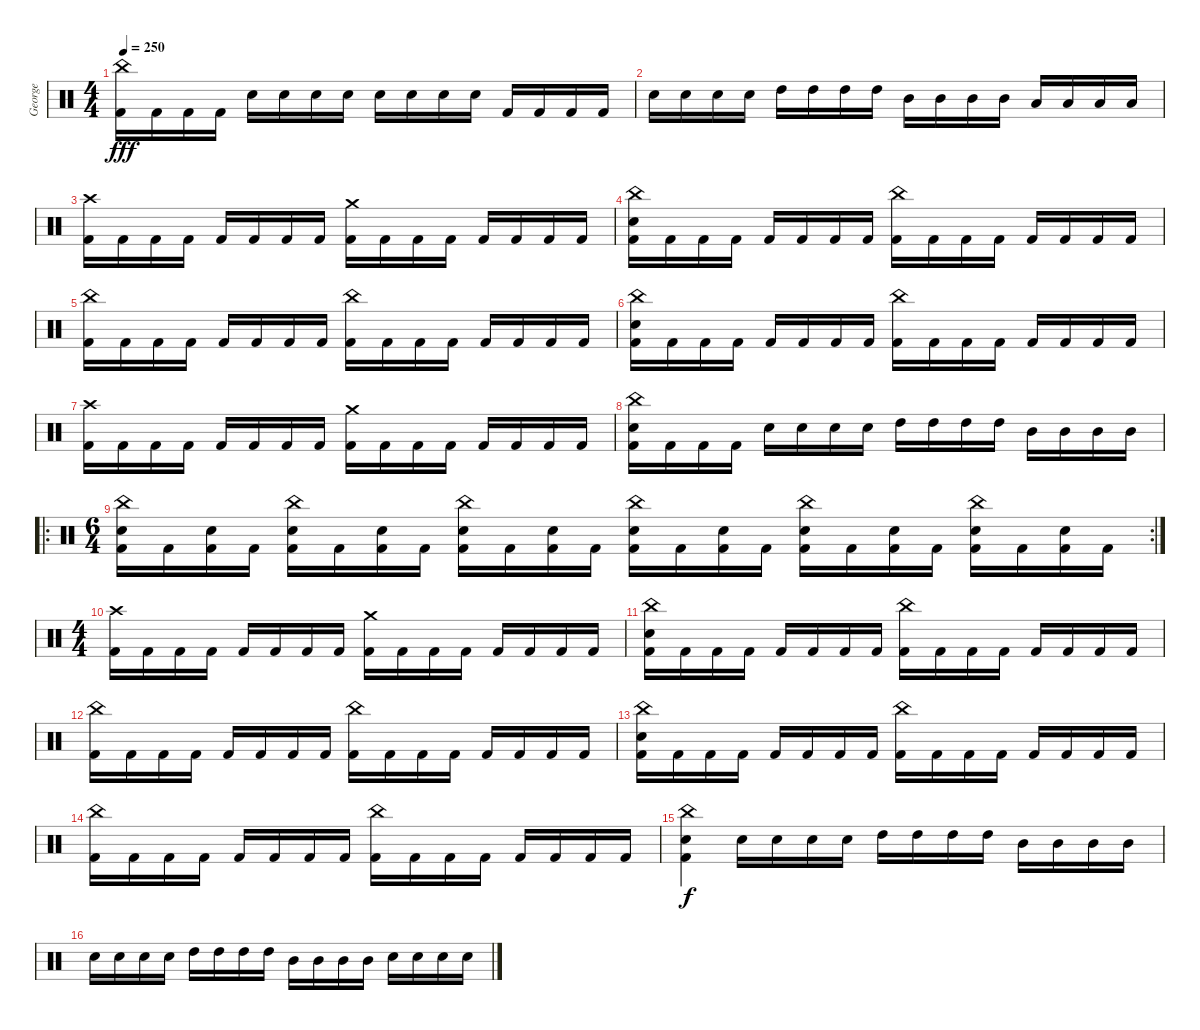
\track ("George" "George") {instrument percussion}
\staff {score}
\articulation defaults
\ts (4 4)
\tempo 250
\clef neutral
\ks c
("China (hit)" "Kick (hit) 2").16{dy fff} "Kick (hit) 2".16 "Kick (hit) 2".16 "Kick (hit) 2".16 "Snare (hit) 2".16 "Snare (hit) 2".16 "Snare (hit) 2".16 "Snare (hit) 2".16 "Snare (hit) 2".16 "Snare (hit) 2".16 "Snare (hit) 2".16 "Snare (hit) 2".16 "Kick (hit) 2".16 "Kick (hit) 2".16 "Kick (hit) 2".16 "Kick (hit) 2".16 |
"Snare (hit) 2".16 "Snare (hit) 2".16 "Snare (hit) 2".16 "Snare (hit) 2".16 "High Tom (hit)".16 "High Tom (hit)".16 "High Tom (hit)".16 "High Tom (hit)".16 "Mid Tom (hit)".16 "Mid Tom (hit)".16 "Mid Tom (hit)".16 "Mid Tom (hit)".16 "Low Tom (hit)".16 "Low Tom (hit)".16 "Low Tom (hit)".16 "Low Tom (hit)".16 |
("Crash high (hit)" "Kick (hit) 2").16 "Kick (hit) 2".16 "Kick (hit) 2".16 "Kick (hit) 2".16 "Kick (hit) 2".16 "Kick (hit) 2".16 "Kick (hit) 2".16 "Kick (hit) 2".16 ("Crash medium (hit)" "Kick (hit) 2").16 "Kick (hit) 2".16 "Kick (hit) 2".16 "Kick (hit) 2".16 "Kick (hit) 2".16 "Kick (hit) 2".16 "Kick (hit) 2".16 "Kick (hit) 2".16 |
("China (hit)" "Snare (hit) 2" "Kick (hit) 2").16 "Kick (hit) 2".16 "Kick (hit) 2".16 "Kick (hit) 2".16 "Kick (hit) 2".16 "Kick (hit) 2".16 "Kick (hit) 2".16 "Kick (hit) 2".16 ("China (hit)" "Kick (hit) 2").16 "Kick (hit) 2".16 "Kick (hit) 2".16 "Kick (hit) 2".16 "Kick (hit) 2".16 "Kick (hit) 2".16 "Kick (hit) 2".16 "Kick (hit) 2".16 |
("China (hit)" "Kick (hit) 2").16 "Kick (hit) 2".16 "Kick (hit) 2".16 "Kick (hit) 2".16 "Kick (hit) 2".16 "Kick (hit) 2".16 "Kick (hit) 2".16 "Kick (hit) 2".16 ("China (hit)" "Kick (hit) 2").16 "Kick (hit) 2".16 "Kick (hit) 2".16 "Kick (hit) 2".16 "Kick (hit) 2".16 "Kick (hit) 2".16 "Kick (hit) 2".16 "Kick (hit) 2".16 |
("China (hit)" "Snare (hit) 2" "Kick (hit) 2").16 "Kick (hit) 2".16 "Kick (hit) 2".16 "Kick (hit) 2".16 "Kick (hit) 2".16 "Kick (hit) 2".16 "Kick (hit) 2".16 "Kick (hit) 2".16 ("China (hit)" "Kick (hit) 2").16 "Kick (hit) 2".16 "Kick (hit) 2".16 "Kick (hit) 2".16 "Kick (hit) 2".16 "Kick (hit) 2".16 "Kick (hit) 2".16 "Kick (hit) 2".16 |
("Crash high (hit)" "Kick (hit) 2").16 "Kick (hit) 2".16 "Kick (hit) 2".16 "Kick (hit) 2".16 "Kick (hit) 2".16 "Kick (hit) 2".16 "Kick (hit) 2".16 "Kick (hit) 2".16 ("Crash medium (hit)" "Kick (hit) 2").16 "Kick (hit) 2".16 "Kick (hit) 2".16 "Kick (hit) 2".16 "Kick (hit) 2".16 "Kick (hit) 2".16 "Kick (hit) 2".16 "Kick (hit) 2".16 |
("China (hit)" "Snare (hit) 2" "Kick (hit) 2").16 "Kick (hit) 2".16 "Kick (hit) 2".16 "Kick (hit) 2".16 "Snare (hit) 2".16 "Snare (hit) 2".16 "Snare (hit) 2".16 "Snare (hit) 2".16 "High Tom (hit)".16 "High Tom (hit)".16 "High Tom (hit)".16 "High Tom (hit)".16 "Mid Tom (hit)".16 "Mid Tom (hit)".16 "Mid Tom (hit)".16 "Mid Tom (hit)".16 |
\ro
\rc 2
\ts (6 4)
("China (hit)" "Snare (hit) 2" "Kick (hit) 2").16 "Kick (hit) 2".16 ("Snare (hit) 2" "Kick (hit) 2").16 "Kick (hit) 2".16 ("China (hit)" "Snare (hit) 2" "Kick (hit) 2").16 "Kick (hit) 2".16 ("Snare (hit) 2" "Kick (hit) 2").16 "Kick (hit) 2".16 ("China (hit)" "Snare (hit) 2" "Kick (hit) 2").16 "Kick (hit) 2".16 ("Snare (hit) 2" "Kick (hit) 2").16 "Kick (hit) 2".16 ("China (hit)" "Snare (hit) 2" "Kick (hit) 2").16 "Kick (hit) 2".16 ("Snare (hit) 2" "Kick (hit) 2").16 "Kick (hit) 2".16 ("China (hit)" "Snare (hit) 2" "Kick (hit) 2").16 "Kick (hit) 2".16 ("Snare (hit) 2" "Kick (hit) 2").16 "Kick (hit) 2".16 ("China (hit)" "Snare (hit) 2" "Kick (hit) 2").16 "Kick (hit) 2".16 ("Snare (hit) 2" "Kick (hit) 2").16 "Kick (hit) 2".16 |
\ts (4 4)
("Crash high (hit)" "Kick (hit) 2").16 "Kick (hit) 2".16 "Kick (hit) 2".16 "Kick (hit) 2".16 "Kick (hit) 2".16 "Kick (hit) 2".16 "Kick (hit) 2".16 "Kick (hit) 2".16 ("Crash medium (hit)" "Kick (hit) 2").16 "Kick (hit) 2".16 "Kick (hit) 2".16 "Kick (hit) 2".16 "Kick (hit) 2".16 "Kick (hit) 2".16 "Kick (hit) 2".16 "Kick (hit) 2".16 |
("China (hit)" "Snare (hit) 2" "Kick (hit) 2").16 "Kick (hit) 2".16 "Kick (hit) 2".16 "Kick (hit) 2".16 "Kick (hit) 2".16 "Kick (hit) 2".16 "Kick (hit) 2".16 "Kick (hit) 2".16 ("China (hit)" "Kick (hit) 2").16 "Kick (hit) 2".16 "Kick (hit) 2".16 "Kick (hit) 2".16 "Kick (hit) 2".16 "Kick (hit) 2".16 "Kick (hit) 2".16 "Kick (hit) 2".16 |
("China (hit)" "Kick (hit) 2").16 "Kick (hit) 2".16 "Kick (hit) 2".16 "Kick (hit) 2".16 "Kick (hit) 2".16 "Kick (hit) 2".16 "Kick (hit) 2".16 "Kick (hit) 2".16 ("China (hit)" "Kick (hit) 2").16 "Kick (hit) 2".16 "Kick (hit) 2".16 "Kick (hit) 2".16 "Kick (hit) 2".16 "Kick (hit) 2".16 "Kick (hit) 2".16 "Kick (hit) 2".16 |
("China (hit)" "Snare (hit) 2" "Kick (hit) 2").16 "Kick (hit) 2".16 "Kick (hit) 2".16 "Kick (hit) 2".16 "Kick (hit) 2".16 "Kick (hit) 2".16 "Kick (hit) 2".16 "Kick (hit) 2".16 ("China (hit)" "Kick (hit) 2").16 "Kick (hit) 2".16 "Kick (hit) 2".16 "Kick (hit) 2".16 "Kick (hit) 2".16 "Kick (hit) 2".16 "Kick (hit) 2".16 "Kick (hit) 2".16 |
("China (hit)" "Kick (hit) 2").16 "Kick (hit) 2".16 "Kick (hit) 2".16 "Kick (hit) 2".16 "Kick (hit) 2".16 "Kick (hit) 2".16 "Kick (hit) 2".16 "Kick (hit) 2".16 ("China (hit)" "Kick (hit) 2").16 "Kick (hit) 2".16 "Kick (hit) 2".16 "Kick (hit) 2".16 "Kick (hit) 2".16 "Kick (hit) 2".16 "Kick (hit) 2".16 "Kick (hit) 2".16 |
("China (hit)" "Snare (hit) 2" "Kick (hit) 2").4{dy f} "Snare (hit) 2".16 "Snare (hit) 2".16 "Snare (hit) 2".16 "Snare (hit) 2".16 "High Tom (hit)".16 "High Tom (hit)".16 "High Tom (hit)".16 "High Tom (hit)".16 "Mid Tom (hit)".16 "Mid Tom (hit)".16 "Mid Tom (hit)".16 "Mid Tom (hit)".16 |
"Snare (hit) 2".16 "Snare (hit) 2".16 "Snare (hit) 2".16 "Snare (hit) 2".16 "High Tom (hit)".16 "High Tom (hit)".16 "High Tom (hit)".16 "High Tom (hit)".16 "Mid Tom (hit)".16 "Mid Tom (hit)".16 "Mid Tom (hit)".16 "Mid Tom (hit)".16 "Snare (hit) 2".16 "Snare (hit) 2".16 "Snare (hit) 2".16 "Snare (hit) 2".16
